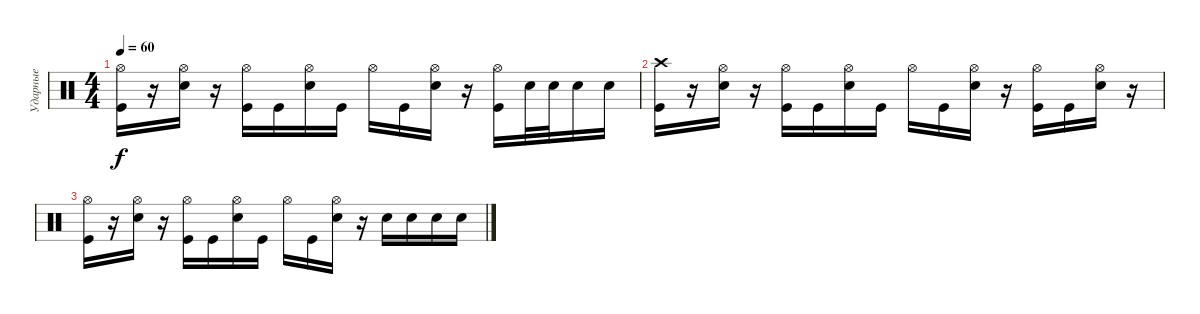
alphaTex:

\track ("Ударные" "Ударные") {instrument percussion}
\staff {score}
\articulation defaults
\ts (4 4)
\tempo 60
\clef neutral
\ks c
("Hi-Hat (open)" "Kick (hit)").16{dy f} r.16 ("Hi-Hat (open)" "Electric Snare (hit)").16 r.16 ("Hi-Hat (open)" "Kick (hit)").16 "Kick (hit)".16 ("Hi-Hat (open)" "Electric Snare (hit)").16 "Kick (hit)".16 "Hi-Hat (open)".16 "Kick (hit)".16 ("Hi-Hat (open)" "Electric Snare (hit)").16 r.16 ("Hi-Hat (open)" "Kick (hit)").16 "Electric Snare (hit)".32 "Electric Snare (hit)".32 "Electric Snare (hit)".16 "Electric Snare (hit)".16 |
("Crash high (hit)" "Kick (hit)").16 r.16 ("Hi-Hat (open)" "Electric Snare (hit)").16 r.16 ("Hi-Hat (open)" "Kick (hit)").16 "Kick (hit)".16 ("Hi-Hat (open)" "Electric Snare (hit)").16 "Kick (hit)".16 "Hi-Hat (open)".16 "Kick (hit)".16 ("Hi-Hat (open)" "Electric Snare (hit)").16 r.16 ("Hi-Hat (open)" "Kick (hit)").16 "Kick (hit)".16 ("Hi-Hat (open)" "Electric Snare (hit)").16 r.16 |
("Hi-Hat (open)" "Kick (hit)").16 r.16 ("Hi-Hat (open)" "Electric Snare (hit)").16 r.16 ("Hi-Hat (open)" "Kick (hit)").16 "Kick (hit)".16 ("Hi-Hat (open)" "Electric Snare (hit)").16 "Kick (hit)".16 "Hi-Hat (open)".16 "Kick (hit)".16 ("Hi-Hat (open)" "Electric Snare (hit)").16 r.16 "Electric Snare (hit)".16 "Electric Snare (hit)".16 "Electric Snare (hit)".16 "Electric Snare (hit)".16
